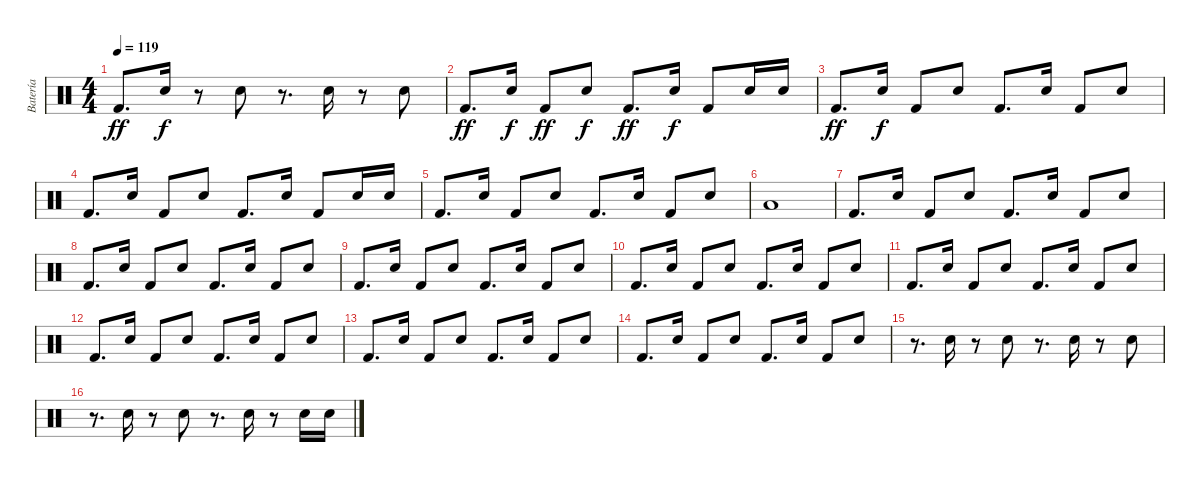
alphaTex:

\track ("Batería" "Batería") {instrument percussion}
\staff {score}
\articulation defaults
\ts (4 4)
\tempo 119
\clef neutral
\ks c "Kick (hit) 2".8{d dy ff} "Electric Snare (hit)".16{dy f}
r.8 "Electric Snare (hit)".8 r.8{d} "Electric Snare (hit)".16 r.8 "Electric Snare (hit)".8 |
"Kick (hit) 2".8{d dy ff} "Electric Snare (hit)".16{dy f} "Kick (hit) 2".8{dy ff} "Electric Snare (hit)".8{dy f} "Kick (hit) 2".8{d dy ff} "Electric Snare (hit)".16{dy f} "Kick (hit) 2".8 "Electric Snare (hit)".16 "Electric Snare (hit)".16 |
"Kick (hit) 2".8{d dy ff} "Electric Snare (hit)".16{dy f} "Kick (hit) 2".8 "Electric Snare (hit)".8 "Kick (hit) 2".8{d} "Electric Snare (hit)".16 "Kick (hit) 2".8 "Electric Snare (hit)".8 |
"Kick (hit) 2".8{d} "Electric Snare (hit)".16 "Kick (hit) 2".8 "Electric Snare (hit)".8 "Kick (hit) 2".8{d} "Electric Snare (hit)".16 "Kick (hit) 2".8 "Electric Snare (hit)".16 "Electric Snare (hit)".16 |
"Kick (hit) 2".8{d} "Electric Snare (hit)".16 "Kick (hit) 2".8 "Electric Snare (hit)".8 "Kick (hit) 2".8{d} "Electric Snare (hit)".16 "Kick (hit) 2".8 "Electric Snare (hit)".8 |
"Low Tom (hit)".1 |
"Kick (hit) 2".8{d} "Electric Snare (hit)".16 "Kick (hit) 2".8 "Electric Snare (hit)".8 "Kick (hit) 2".8{d} "Electric Snare (hit)".16 "Kick (hit) 2".8 "Electric Snare (hit)".8 |
"Kick (hit) 2".8{d} "Electric Snare (hit)".16 "Kick (hit) 2".8 "Electric Snare (hit)".8 "Kick (hit) 2".8{d} "Electric Snare (hit)".16 "Kick (hit) 2".8 "Electric Snare (hit)".8 |
"Kick (hit) 2".8{d} "Electric Snare (hit)".16 "Kick (hit) 2".8 "Electric Snare (hit)".8 "Kick (hit) 2".8{d} "Electric Snare (hit)".16 "Kick (hit) 2".8 "Electric Snare (hit)".8 |
"Kick (hit) 2".8{d} "Electric Snare (hit)".16 "Kick (hit) 2".8 "Electric Snare (hit)".8 "Kick (hit) 2".8{d} "Electric Snare (hit)".16 "Kick (hit) 2".8 "Electric Snare (hit)".8 |
"Kick (hit) 2".8{d} "Electric Snare (hit)".16 "Kick (hit) 2".8 "Electric Snare (hit)".8 "Kick (hit) 2".8{d} "Electric Snare (hit)".16 "Kick (hit) 2".8 "Electric Snare (hit)".8 |
"Kick (hit) 2".8{d} "Electric Snare (hit)".16 "Kick (hit) 2".8 "Electric Snare (hit)".8 "Kick (hit) 2".8{d} "Electric Snare (hit)".16 "Kick (hit) 2".8 "Electric Snare (hit)".8 |
"Kick (hit) 2".8{d} "Electric Snare (hit)".16 "Kick (hit) 2".8 "Electric Snare (hit)".8 "Kick (hit) 2".8{d} "Electric Snare (hit)".16 "Kick (hit) 2".8 "Electric Snare (hit)".8 |
"Kick (hit) 2".8{d} "Electric Snare (hit)".16 "Kick (hit) 2".8 "Electric Snare (hit)".8 "Kick (hit) 2".8{d} "Electric Snare (hit)".16 "Kick (hit) 2".8 "Electric Snare (hit)".8 |
r.8{d} "Electric Snare (hit)".16 r.8 "Electric Snare (hit)".8 r.8{d} "Electric Snare (hit)".16 r.8 "Electric Snare (hit)".8 |
r.8{d} "Electric Snare (hit)".16 r.8 "Electric Snare (hit)".8 r.8{d} "Electric Snare (hit)".16 r.8 "Electric Snare (hit)".16 "Electric Snare (hit)".16
